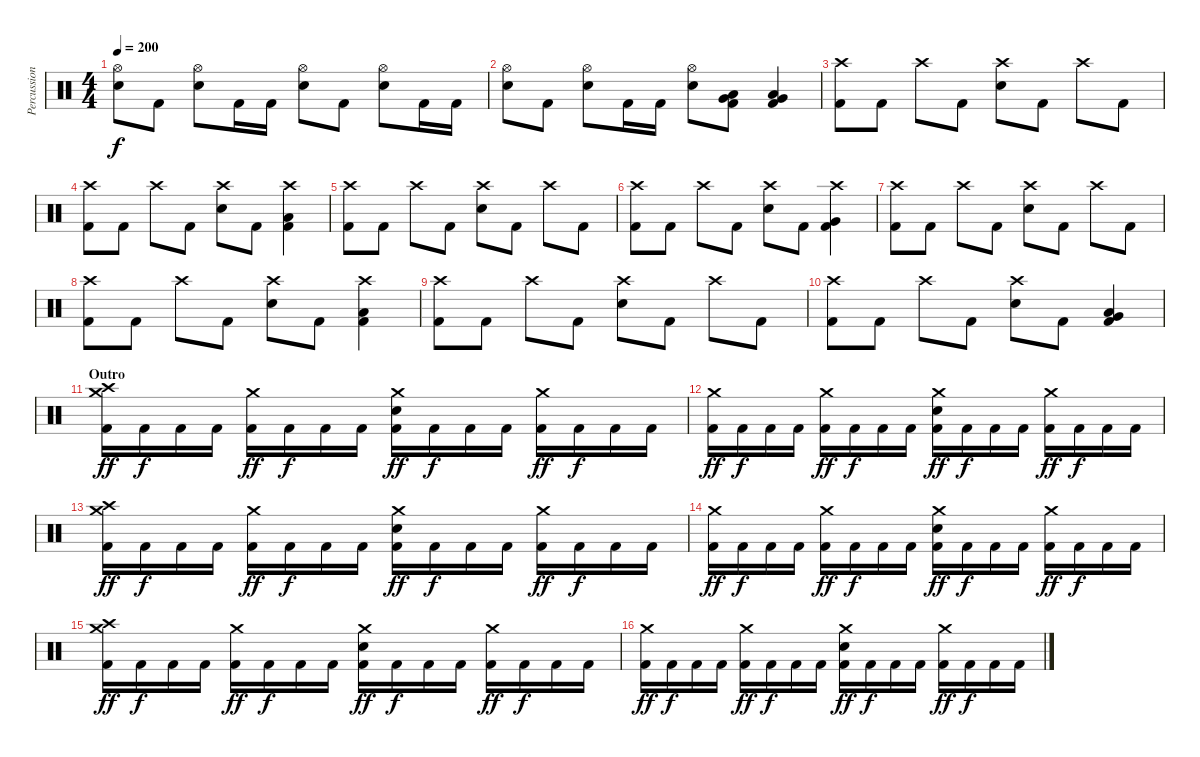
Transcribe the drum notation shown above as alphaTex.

\track ("Percussions" "Percussion") {instrument percussion}
\staff {score}
\articulation defaults
\ts (4 4)
\tempo 200
\clef neutral
\ks c
("Hi-Hat (open)" "Electric Snare (hit)").8{dy f} "Kick (hit) 2".8 ("Hi-Hat (open)" "Electric Snare (hit)").8 "Kick (hit) 2".16 "Kick (hit) 2".16 ("Hi-Hat (open)" "Electric Snare (hit)").8 "Kick (hit) 2".8 ("Hi-Hat (open)" "Electric Snare (hit)").8 "Kick (hit) 2".16 "Kick (hit) 2".16 |
("Hi-Hat (open)" "Electric Snare (hit)").8 "Kick (hit) 2".8 ("Hi-Hat (open)" "Electric Snare (hit)").8 "Kick (hit) 2".16 "Kick (hit) 2".16 ("Hi-Hat (open)" "Electric Snare (hit)").8 ("Very Low Tom (hit)" "Low Floor Tom (hit)" "Kick (hit) 2").8 ("Very Low Tom (hit)" "Low Floor Tom (hit)" "Kick (hit) 2").4 |
("Crash high (hit)" "Kick (hit) 2").8 "Kick (hit) 2".8 "Crash high (hit)".8 "Kick (hit) 2".8 ("Crash high (hit)" "Electric Snare (hit)").8 "Kick (hit) 2".8 "Crash high (hit)".8 "Kick (hit) 2".8 |
("Crash high (hit)" "Kick (hit) 2").8 "Kick (hit) 2".8 "Crash high (hit)".8 "Kick (hit) 2".8 ("Crash high (hit)" "Electric Snare (hit)").8 "Kick (hit) 2".8 ("Crash high (hit)" "Low Floor Tom (hit)" "Kick (hit) 2").4 |
("Crash high (hit)" "Kick (hit) 2").8 "Kick (hit) 2".8 "Crash high (hit)".8 "Kick (hit) 2".8 ("Crash high (hit)" "Electric Snare (hit)").8 "Kick (hit) 2".8 "Crash high (hit)".8 "Kick (hit) 2".8 |
("Crash high (hit)" "Kick (hit) 2").8 "Kick (hit) 2".8 "Crash high (hit)".8 "Kick (hit) 2".8 ("Crash high (hit)" "Electric Snare (hit)").8 "Kick (hit) 2".8 ("Crash high (hit)" "Very Low Tom (hit)" "Kick (hit) 2").4 |
("Crash high (hit)" "Kick (hit) 2").8 "Kick (hit) 2".8 "Crash high (hit)".8 "Kick (hit) 2".8 ("Crash high (hit)" "Electric Snare (hit)").8 "Kick (hit) 2".8 "Crash high (hit)".8 "Kick (hit) 2".8 |
("Crash high (hit)" "Kick (hit) 2").8 "Kick (hit) 2".8 "Crash high (hit)".8 "Kick (hit) 2".8 ("Crash high (hit)" "Electric Snare (hit)").8 "Kick (hit) 2".8 ("Crash high (hit)" "Low Floor Tom (hit)" "Kick (hit) 2").4 |
("Crash high (hit)" "Kick (hit) 2").8 "Kick (hit) 2".8 "Crash high (hit)".8 "Kick (hit) 2".8 ("Crash high (hit)" "Electric Snare (hit)").8 "Kick (hit) 2".8 "Crash high (hit)".8 "Kick (hit) 2".8 |
("Crash high (hit)" "Kick (hit) 2").8 "Kick (hit) 2".8 "Crash high (hit)".8 "Kick (hit) 2".8 ("Crash high (hit)" "Electric Snare (hit)").8 "Kick (hit) 2".8 ("Very Low Tom (hit)" "Low Floor Tom (hit)" "Kick (hit) 2").4 |
\section ("" "Outro")
("Crash high (hit)" "Crash medium (hit)" "Kick (hit) 2").16{dy ff} "Kick (hit) 2".16{dy f} "Kick (hit) 2".16 "Kick (hit) 2".16 ("Crash medium (hit)" "Kick (hit) 2").16{dy ff} "Kick (hit) 2".16{dy f} "Kick (hit) 2".16 "Kick (hit) 2".16 ("Crash medium (hit)" "Electric Snare (hit)" "Kick (hit) 2").16{dy ff} "Kick (hit) 2".16{dy f} "Kick (hit) 2".16 "Kick (hit) 2".16 ("Crash medium (hit)" "Kick (hit) 2").16{dy ff} "Kick (hit) 2".16{dy f} "Kick (hit) 2".16 "Kick (hit) 2".16 |
("Crash medium (hit)" "Kick (hit) 2").16{dy ff} "Kick (hit) 2".16{dy f} "Kick (hit) 2".16 "Kick (hit) 2".16 ("Crash medium (hit)" "Kick (hit) 2").16{dy ff} "Kick (hit) 2".16{dy f} "Kick (hit) 2".16 "Kick (hit) 2".16 ("Crash medium (hit)" "Electric Snare (hit)" "Kick (hit) 2").16{dy ff} "Kick (hit) 2".16{dy f} "Kick (hit) 2".16 "Kick (hit) 2".16 ("Crash medium (hit)" "Kick (hit) 2").16{dy ff} "Kick (hit) 2".16{dy f} "Kick (hit) 2".16 "Kick (hit) 2".16 |
("Crash high (hit)" "Crash medium (hit)" "Kick (hit) 2").16{dy ff} "Kick (hit) 2".16{dy f} "Kick (hit) 2".16 "Kick (hit) 2".16 ("Crash medium (hit)" "Kick (hit) 2").16{dy ff} "Kick (hit) 2".16{dy f} "Kick (hit) 2".16 "Kick (hit) 2".16 ("Crash medium (hit)" "Electric Snare (hit)" "Kick (hit) 2").16{dy ff} "Kick (hit) 2".16{dy f} "Kick (hit) 2".16 "Kick (hit) 2".16 ("Crash medium (hit)" "Kick (hit) 2").16{dy ff} "Kick (hit) 2".16{dy f} "Kick (hit) 2".16 "Kick (hit) 2".16 |
("Crash medium (hit)" "Kick (hit) 2").16{dy ff} "Kick (hit) 2".16{dy f} "Kick (hit) 2".16 "Kick (hit) 2".16 ("Crash medium (hit)" "Kick (hit) 2").16{dy ff} "Kick (hit) 2".16{dy f} "Kick (hit) 2".16 "Kick (hit) 2".16 ("Crash medium (hit)" "Electric Snare (hit)" "Kick (hit) 2").16{dy ff} "Kick (hit) 2".16{dy f} "Kick (hit) 2".16 "Kick (hit) 2".16 ("Crash medium (hit)" "Kick (hit) 2").16{dy ff} "Kick (hit) 2".16{dy f} "Kick (hit) 2".16 "Kick (hit) 2".16 |
("Crash high (hit)" "Crash medium (hit)" "Kick (hit) 2").16{dy ff} "Kick (hit) 2".16{dy f} "Kick (hit) 2".16 "Kick (hit) 2".16 ("Crash medium (hit)" "Kick (hit) 2").16{dy ff} "Kick (hit) 2".16{dy f} "Kick (hit) 2".16 "Kick (hit) 2".16 ("Crash medium (hit)" "Electric Snare (hit)" "Kick (hit) 2").16{dy ff} "Kick (hit) 2".16{dy f} "Kick (hit) 2".16 "Kick (hit) 2".16 ("Crash medium (hit)" "Kick (hit) 2").16{dy ff} "Kick (hit) 2".16{dy f} "Kick (hit) 2".16 "Kick (hit) 2".16 |
("Crash medium (hit)" "Kick (hit) 2").16{dy ff} "Kick (hit) 2".16{dy f} "Kick (hit) 2".16 "Kick (hit) 2".16 ("Crash medium (hit)" "Kick (hit) 2").16{dy ff} "Kick (hit) 2".16{dy f} "Kick (hit) 2".16 "Kick (hit) 2".16 ("Crash medium (hit)" "Electric Snare (hit)" "Kick (hit) 2").16{dy ff} "Kick (hit) 2".16{dy f} "Kick (hit) 2".16 "Kick (hit) 2".16 ("Crash medium (hit)" "Kick (hit) 2").16{dy ff} "Kick (hit) 2".16{dy f} "Kick (hit) 2".16 "Kick (hit) 2".16
